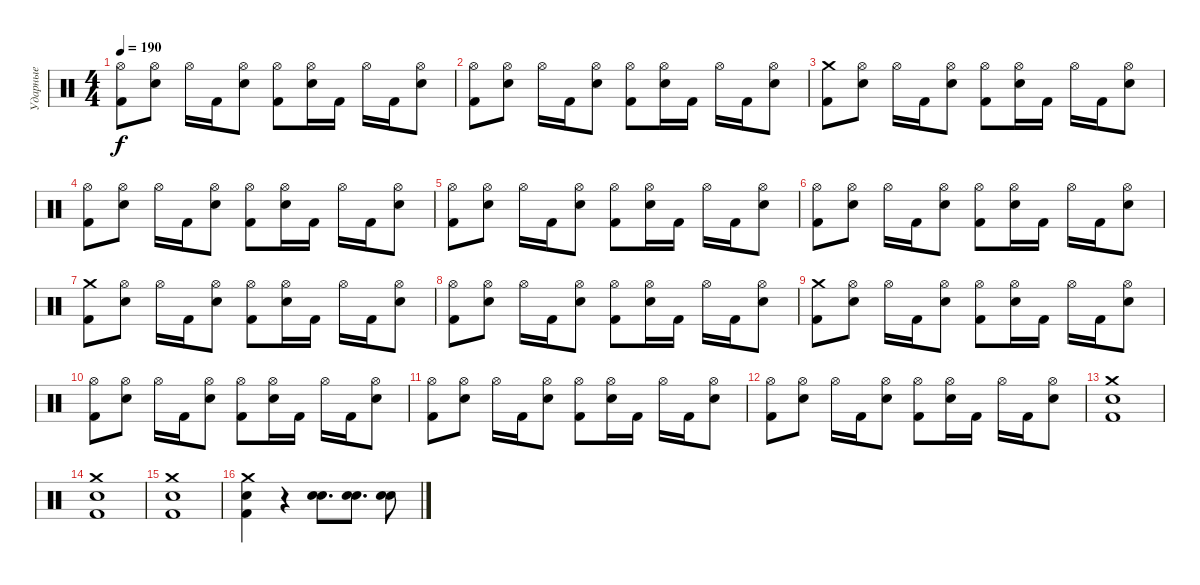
\track ("Ударные" "Ударные") {instrument percussion}
\staff {score}
\articulation defaults
\ts (4 4)
\tempo 190
\clef neutral
\ks c
("Kick (hit) 2" "Hi-Hat (open)").8{dy f} ("Electric Snare (hit)" "Hi-Hat (open)").8 "Hi-Hat (open)".16 "Kick (hit) 2".16 ("Electric Snare (hit)" "Hi-Hat (open)").8 ("Kick (hit) 2" "Hi-Hat (open)").8 ("Electric Snare (hit)" "Hi-Hat (open)").16 "Kick (hit) 2".16 "Hi-Hat (open)".16 "Kick (hit) 2".16 ("Electric Snare (hit)" "Hi-Hat (open)").8 |
("Kick (hit) 2" "Hi-Hat (open)").8 ("Electric Snare (hit)" "Hi-Hat (open)").8 "Hi-Hat (open)".16 "Kick (hit) 2".16 ("Electric Snare (hit)" "Hi-Hat (open)").8 ("Kick (hit) 2" "Hi-Hat (open)").8 ("Electric Snare (hit)" "Hi-Hat (open)").16 "Kick (hit) 2".16 "Hi-Hat (open)".16 "Kick (hit) 2".16 ("Electric Snare (hit)" "Hi-Hat (open)").8 |
("Kick (hit) 2" "Crash medium (hit)").8 ("Electric Snare (hit)" "Hi-Hat (open)").8 "Hi-Hat (open)".16 "Kick (hit) 2".16 ("Electric Snare (hit)" "Hi-Hat (open)").8 ("Kick (hit) 2" "Hi-Hat (open)").8 ("Electric Snare (hit)" "Hi-Hat (open)").16 "Kick (hit) 2".16 "Hi-Hat (open)".16 "Kick (hit) 2".16 ("Electric Snare (hit)" "Hi-Hat (open)").8 |
("Kick (hit) 2" "Hi-Hat (open)").8 ("Electric Snare (hit)" "Hi-Hat (open)").8 "Hi-Hat (open)".16 "Kick (hit) 2".16 ("Electric Snare (hit)" "Hi-Hat (open)").8 ("Kick (hit) 2" "Hi-Hat (open)").8 ("Electric Snare (hit)" "Hi-Hat (open)").16 "Kick (hit) 2".16 "Hi-Hat (open)".16 "Kick (hit) 2".16 ("Electric Snare (hit)" "Hi-Hat (open)").8 |
("Kick (hit) 2" "Hi-Hat (open)").8 ("Electric Snare (hit)" "Hi-Hat (open)").8 "Hi-Hat (open)".16 "Kick (hit) 2".16 ("Electric Snare (hit)" "Hi-Hat (open)").8 ("Kick (hit) 2" "Hi-Hat (open)").8 ("Electric Snare (hit)" "Hi-Hat (open)").16 "Kick (hit) 2".16 "Hi-Hat (open)".16 "Kick (hit) 2".16 ("Electric Snare (hit)" "Hi-Hat (open)").8 |
("Kick (hit) 2" "Hi-Hat (open)").8 ("Electric Snare (hit)" "Hi-Hat (open)").8 "Hi-Hat (open)".16 "Kick (hit) 2".16 ("Electric Snare (hit)" "Hi-Hat (open)").8 ("Kick (hit) 2" "Hi-Hat (open)").8 ("Electric Snare (hit)" "Hi-Hat (open)").16 "Kick (hit) 2".16 "Hi-Hat (open)".16 "Kick (hit) 2".16 ("Electric Snare (hit)" "Hi-Hat (open)").8 |
("Kick (hit) 2" "Crash medium (hit)").8 ("Electric Snare (hit)" "Hi-Hat (open)").8 "Hi-Hat (open)".16 "Kick (hit) 2".16 ("Electric Snare (hit)" "Hi-Hat (open)").8 ("Kick (hit) 2" "Hi-Hat (open)").8 ("Electric Snare (hit)" "Hi-Hat (open)").16 "Kick (hit) 2".16 "Hi-Hat (open)".16 "Kick (hit) 2".16 ("Electric Snare (hit)" "Hi-Hat (open)").8 |
("Kick (hit) 2" "Hi-Hat (open)").8 ("Electric Snare (hit)" "Hi-Hat (open)").8 "Hi-Hat (open)".16 "Kick (hit) 2".16 ("Electric Snare (hit)" "Hi-Hat (open)").8 ("Kick (hit) 2" "Hi-Hat (open)").8 ("Electric Snare (hit)" "Hi-Hat (open)").16 "Kick (hit) 2".16 "Hi-Hat (open)".16 "Kick (hit) 2".16 ("Electric Snare (hit)" "Hi-Hat (open)").8 |
("Kick (hit) 2" "Crash medium (hit)").8 ("Electric Snare (hit)" "Hi-Hat (open)").8 "Hi-Hat (open)".16 "Kick (hit) 2".16 ("Electric Snare (hit)" "Hi-Hat (open)").8 ("Kick (hit) 2" "Hi-Hat (open)").8 ("Electric Snare (hit)" "Hi-Hat (open)").16 "Kick (hit) 2".16 "Hi-Hat (open)".16 "Kick (hit) 2".16 ("Electric Snare (hit)" "Hi-Hat (open)").8 |
("Kick (hit) 2" "Hi-Hat (open)").8 ("Electric Snare (hit)" "Hi-Hat (open)").8 "Hi-Hat (open)".16 "Kick (hit) 2".16 ("Electric Snare (hit)" "Hi-Hat (open)").8 ("Kick (hit) 2" "Hi-Hat (open)").8 ("Electric Snare (hit)" "Hi-Hat (open)").16 "Kick (hit) 2".16 "Hi-Hat (open)".16 "Kick (hit) 2".16 ("Electric Snare (hit)" "Hi-Hat (open)").8 |
("Kick (hit) 2" "Hi-Hat (open)").8 ("Electric Snare (hit)" "Hi-Hat (open)").8 "Hi-Hat (open)".16 "Kick (hit) 2".16 ("Electric Snare (hit)" "Hi-Hat (open)").8 ("Kick (hit) 2" "Hi-Hat (open)").8 ("Electric Snare (hit)" "Hi-Hat (open)").16 "Kick (hit) 2".16 "Hi-Hat (open)".16 "Kick (hit) 2".16 ("Electric Snare (hit)" "Hi-Hat (open)").8 |
("Kick (hit) 2" "Hi-Hat (open)").8 ("Electric Snare (hit)" "Hi-Hat (open)").8 "Hi-Hat (open)".16 "Kick (hit) 2".16 ("Electric Snare (hit)" "Hi-Hat (open)").8 ("Kick (hit) 2" "Hi-Hat (open)").8 ("Electric Snare (hit)" "Hi-Hat (open)").16 "Kick (hit) 2".16 "Hi-Hat (open)".16 "Kick (hit) 2".16 ("Electric Snare (hit)" "Hi-Hat (open)").8 |
("Crash medium (hit)" "Electric Snare (hit)" "Kick (hit) 2").1 |
("Crash medium (hit)" "Electric Snare (hit)" "Kick (hit) 2").1 |
("Crash medium (hit)" "Electric Snare (hit)" "Kick (hit) 2").1 |
("Crash medium (hit)" "Electric Snare (hit)" "Kick (hit) 2").4 r.4 ("Electric Snare (hit)" "Electric Snare (hit)").8{d} ("Electric Snare (hit)" "Electric Snare (hit)").8{d} ("Electric Snare (hit)" "Electric Snare (hit)").8
